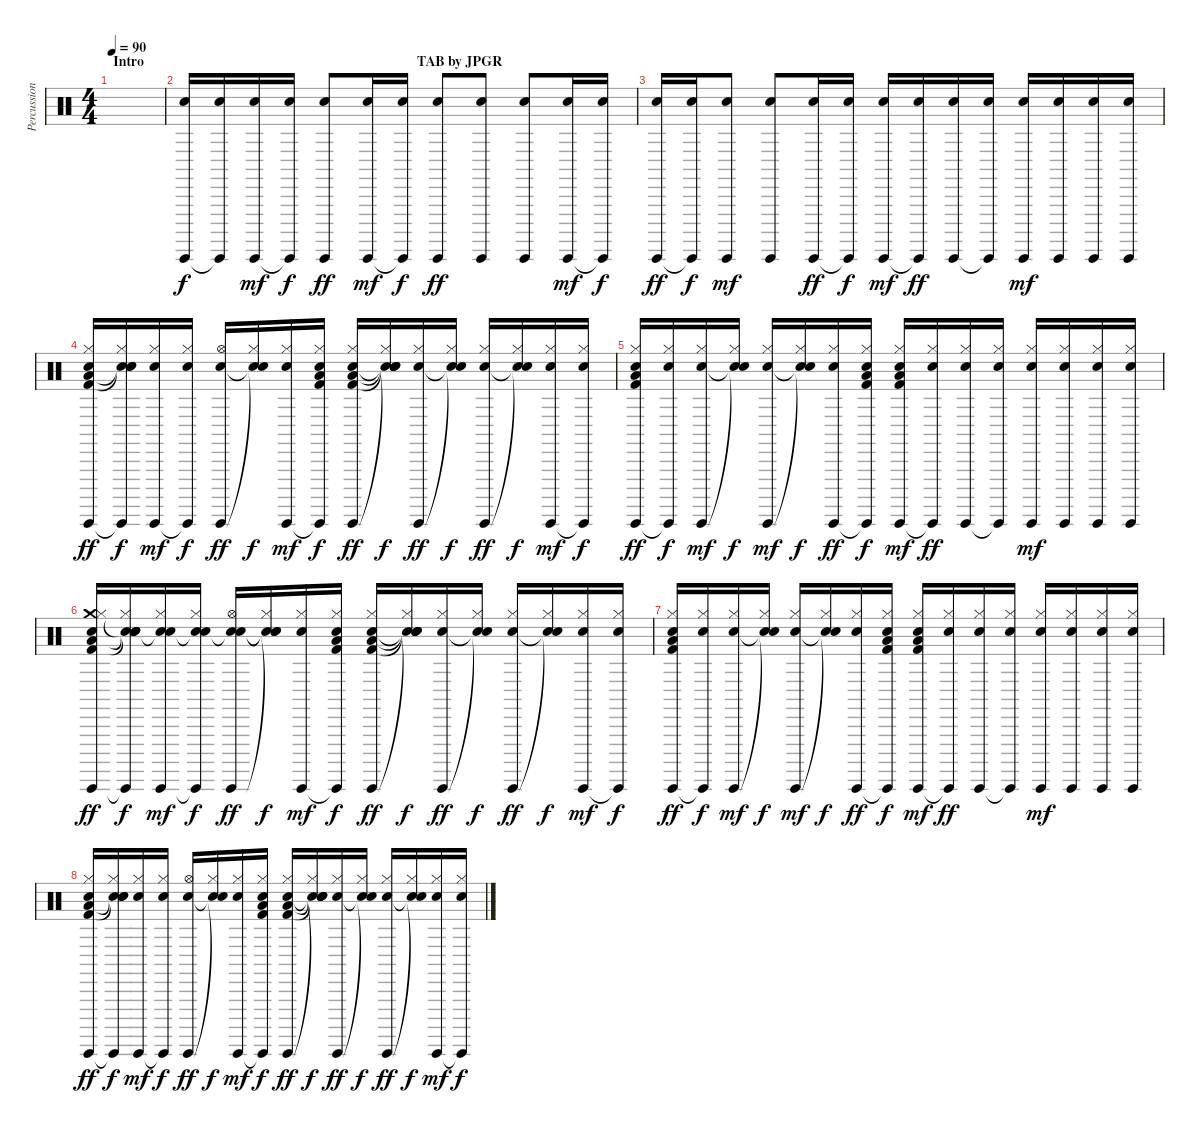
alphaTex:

\track ("Percussion" "Percussion") {instrument percussion}
\staff {score}
\articulation defaults
\ts (4 4)
\section ("" "Intro                                                                              TAB by JPGR")
\tempo 90
\clef neutral
\ks c
|
("Guiro (hit)" "Hand Clap (hit)").16 ("Guiro (hit)"{t} "Hand Clap (hit)").16{dy f} ("Guiro (hit)" "Hand Clap (hit)").16{dy mf} ("Guiro (hit)"{t} "Hand Clap (hit)").16{dy f} ("Guiro (hit)" "Hand Clap (hit)").8{dy ff} ("Guiro (hit)" "Hand Clap (hit)").16{dy mf} ("Guiro (hit)"{t} "Hand Clap (hit)").16{dy f} ("Guiro (hit)" "Hand Clap (hit)").8{dy ff} ("Guiro (hit)" "Hand Clap (hit)").8 ("Guiro (hit)" "Hand Clap (hit)").8 ("Guiro (hit)" "Hand Clap (hit)").16{dy mf} ("Guiro (hit)"{t} "Hand Clap (hit)").16{dy f} |
("Guiro (hit)" "Hand Clap (hit)").16{dy ff} ("Guiro (hit)"{t} "Hand Clap (hit)").16{dy f} ("Guiro (hit)" "Hand Clap (hit)").8{dy mf} ("Guiro (hit)" "Hand Clap (hit)").8 ("Guiro (hit)" "Hand Clap (hit)").16{dy ff} ("Guiro (hit)"{t} "Hand Clap (hit)").16{dy f} ("Guiro (hit)" "Hand Clap (hit)").16{dy mf} ("Guiro (hit)"{t} "Hand Clap (hit)").16{dy ff} ("Guiro (hit)" "Hand Clap (hit)").16 ("Guiro (hit)"{t} "Hand Clap (hit)").16 ("Guiro (hit)" "Hand Clap (hit)").16{dy mf} ("Guiro (hit)" "Hand Clap (hit)").16 ("Guiro (hit)" "Hand Clap (hit)").16 ("Guiro (hit)" "Hand Clap (hit)").16 |
("Guiro (hit)" "Hi-Hat (closed)" "Hand Clap (hit)" "Low Floor Tom (hit)" "Kick (hit) 2").16{dy ff} ("Guiro (hit)"{t} "Hi-Hat (closed)" "Hand Clap (hit)" "Snare (hit)"{t} "Snare (hit)"{t}).16{dy f} ("Guiro (hit)" "Hi-Hat (closed)" "Hand Clap (hit)").16{dy mf} ("Guiro (hit)"{t} "Hi-Hat (closed)" "Hand Clap (hit)").16{dy f} ("Guiro (hit)" "Hi-Hat (open)" "Hand Clap (hit)").16{dy ff} ("Snare (hit)"{t} "Hi-Hat (closed)" "Snare (hit)"{t}).16{dy f} ("Guiro (hit)" "Hi-Hat (closed)" "Hand Clap (hit)").16{dy mf} ("Guiro (hit)"{t} "Hi-Hat (closed)" "Hand Clap (hit)" "Low Floor Tom (hit)" "Kick (hit) 2").16{dy f} ("Guiro (hit)" "Hi-Hat (closed)" "Hand Clap (hit)" "Low Floor Tom (hit)" "Kick (hit) 2").16{dy ff} ("Snare (hit)"{t} "Hi-Hat (closed)" "Snare (hit)"{t} "Snare (hit)"{t} "Snare (hit)"{t}).16{dy f} ("Guiro (hit)" "Hi-Hat (closed)" "Hand Clap (hit)").16{dy ff} ("Snare (hit)"{t} "Hi-Hat (closed)" "Snare (hit)"{t}).16{dy f} ("Guiro (hit)" "Hi-Hat (closed)" "Hand Clap (hit)").16{dy ff} ("Snare (hit)"{t} "Hi-Hat (closed)" "Snare (hit)"{t}).16{dy f} ("Guiro (hit)" "Hi-Hat (closed)" "Hand Clap (hit)").16{dy mf} ("Guiro (hit)"{t} "Hi-Hat (closed)" "Hand Clap (hit)").16{dy f} |
("Guiro (hit)" "Hi-Hat (closed)" "Hand Clap (hit)" "Low Floor Tom (hit)" "Kick (hit) 2").16{dy ff} ("Guiro (hit)"{t} "Hi-Hat (closed)" "Hand Clap (hit)").16{dy f} ("Guiro (hit)" "Hi-Hat (closed)" "Hand Clap (hit)").16{dy mf} ("Snare (hit)"{t} "Hi-Hat (closed)" "Snare (hit)"{t}).16{dy f} ("Guiro (hit)" "Hi-Hat (closed)" "Hand Clap (hit)").16{dy mf} ("Snare (hit)"{t} "Hi-Hat (closed)" "Snare (hit)"{t}).16{dy f} ("Guiro (hit)" "Hi-Hat (closed)" "Hand Clap (hit)").16{dy ff} ("Guiro (hit)"{t} "Hi-Hat (closed)" "Hand Clap (hit)" "Low Floor Tom (hit)" "Kick (hit) 2").16{dy f} ("Guiro (hit)" "Hi-Hat (closed)" "Hand Clap (hit)" "Low Floor Tom (hit)" "Kick (hit) 2").16{dy mf} ("Guiro (hit)"{t} "Hi-Hat (closed)" "Hand Clap (hit)").16{dy ff} ("Guiro (hit)" "Hi-Hat (closed)" "Hand Clap (hit)").16 ("Guiro (hit)"{t} "Hi-Hat (closed)" "Hand Clap (hit)").16 ("Guiro (hit)" "Hi-Hat (closed)" "Hand Clap (hit)").16{dy mf} ("Guiro (hit)" "Hi-Hat (closed)" "Hand Clap (hit)").16 ("Guiro (hit)" "Hi-Hat (closed)" "Hand Clap (hit)").16 ("Guiro (hit)" "Hi-Hat (closed)" "Hand Clap (hit)").16 |
("Guiro (hit)" "Crash medium (hit)" "Hi-Hat (closed)" "Hand Clap (hit)" "Low Floor Tom (hit)" "Kick (hit) 2").16{dy ff} ("Guiro (hit)"{t} "Snare (hit)"{t} "Hi-Hat (closed)" "Hand Clap (hit)" "Snare (hit)"{t} "Snare (hit)"{t}).16{dy f} ("Guiro (hit)" "Snare (hit)"{t} "Hi-Hat (closed)" "Hand Clap (hit)").16{dy mf} ("Guiro (hit)"{t} "Snare (hit)"{t} "Hi-Hat (closed)" "Hand Clap (hit)").16{dy f} ("Guiro (hit)" "Snare (hit)"{t} "Hi-Hat (open)" "Hand Clap (hit)").16{dy ff} ("Snare (hit)"{t} "Snare (hit)"{t} "Hi-Hat (closed)" "Snare (hit)"{t}).16{dy f} ("Guiro (hit)" "Hi-Hat (closed)" "Hand Clap (hit)").16{dy mf} ("Guiro (hit)"{t} "Hi-Hat (closed)" "Hand Clap (hit)" "Low Floor Tom (hit)" "Kick (hit) 2").16{dy f} ("Guiro (hit)" "Hi-Hat (closed)" "Hand Clap (hit)" "Low Floor Tom (hit)" "Kick (hit) 2").16{dy ff} ("Snare (hit)"{t} "Hi-Hat (closed)" "Snare (hit)"{t} "Snare (hit)"{t} "Snare (hit)"{t}).16{dy f} ("Guiro (hit)" "Hi-Hat (closed)" "Hand Clap (hit)").16{dy ff} ("Snare (hit)"{t} "Hi-Hat (closed)" "Snare (hit)"{t}).16{dy f} ("Guiro (hit)" "Hi-Hat (closed)" "Hand Clap (hit)").16{dy ff} ("Snare (hit)"{t} "Hi-Hat (closed)" "Snare (hit)"{t}).16{dy f} ("Guiro (hit)" "Hi-Hat (closed)" "Hand Clap (hit)").16{dy mf} ("Guiro (hit)"{t} "Hi-Hat (closed)" "Hand Clap (hit)").16{dy f} |
("Guiro (hit)" "Hi-Hat (closed)" "Hand Clap (hit)" "Low Floor Tom (hit)" "Kick (hit) 2").16{dy ff} ("Guiro (hit)"{t} "Hi-Hat (closed)" "Hand Clap (hit)").16{dy f} ("Guiro (hit)" "Hi-Hat (closed)" "Hand Clap (hit)").16{dy mf} ("Snare (hit)"{t} "Hi-Hat (closed)" "Snare (hit)"{t}).16{dy f} ("Guiro (hit)" "Hi-Hat (closed)" "Hand Clap (hit)").16{dy mf} ("Snare (hit)"{t} "Hi-Hat (closed)" "Snare (hit)"{t}).16{dy f} ("Guiro (hit)" "Hi-Hat (closed)" "Hand Clap (hit)").16{dy ff} ("Guiro (hit)"{t} "Hi-Hat (closed)" "Hand Clap (hit)" "Low Floor Tom (hit)" "Kick (hit) 2").16{dy f} ("Guiro (hit)" "Hi-Hat (closed)" "Hand Clap (hit)" "Low Floor Tom (hit)" "Kick (hit) 2").16{dy mf} ("Guiro (hit)"{t} "Hi-Hat (closed)" "Hand Clap (hit)").16{dy ff} ("Guiro (hit)" "Hi-Hat (closed)" "Hand Clap (hit)").16 ("Guiro (hit)"{t} "Hi-Hat (closed)" "Hand Clap (hit)").16 ("Guiro (hit)" "Hi-Hat (closed)" "Hand Clap (hit)").16{dy mf} ("Guiro (hit)" "Hi-Hat (closed)" "Hand Clap (hit)").16 ("Guiro (hit)" "Hi-Hat (closed)" "Hand Clap (hit)").16 ("Guiro (hit)" "Hi-Hat (closed)" "Hand Clap (hit)").16 |
("Guiro (hit)" "Hi-Hat (closed)" "Hand Clap (hit)" "Low Floor Tom (hit)" "Kick (hit) 2").16{dy ff} ("Guiro (hit)"{t} "Hi-Hat (closed)" "Hand Clap (hit)" "Snare (hit)"{t} "Snare (hit)"{t}).16{dy f} ("Guiro (hit)" "Hi-Hat (closed)" "Hand Clap (hit)").16{dy mf} ("Guiro (hit)"{t} "Hi-Hat (closed)" "Hand Clap (hit)").16{dy f} ("Guiro (hit)" "Hi-Hat (open)" "Hand Clap (hit)").16{dy ff} ("Snare (hit)"{t} "Hi-Hat (closed)" "Snare (hit)"{t}).16{dy f} ("Guiro (hit)" "Hi-Hat (closed)" "Hand Clap (hit)").16{dy mf} ("Guiro (hit)"{t} "Hi-Hat (closed)" "Hand Clap (hit)" "Low Floor Tom (hit)" "Kick (hit) 2").16{dy f} ("Guiro (hit)" "Hi-Hat (closed)" "Hand Clap (hit)" "Low Floor Tom (hit)" "Kick (hit) 2").16{dy ff} ("Snare (hit)"{t} "Hi-Hat (closed)" "Snare (hit)"{t} "Snare (hit)"{t} "Snare (hit)"{t}).16{dy f} ("Guiro (hit)" "Hi-Hat (closed)" "Hand Clap (hit)").16{dy ff} ("Snare (hit)"{t} "Hi-Hat (closed)" "Snare (hit)"{t}).16{dy f} ("Guiro (hit)" "Hi-Hat (closed)" "Hand Clap (hit)").16{dy ff} ("Snare (hit)"{t} "Hi-Hat (closed)" "Snare (hit)"{t}).16{dy f} ("Guiro (hit)" "Hi-Hat (closed)" "Hand Clap (hit)").16{dy mf} ("Guiro (hit)"{t} "Hi-Hat (closed)" "Hand Clap (hit)").16{dy f}
